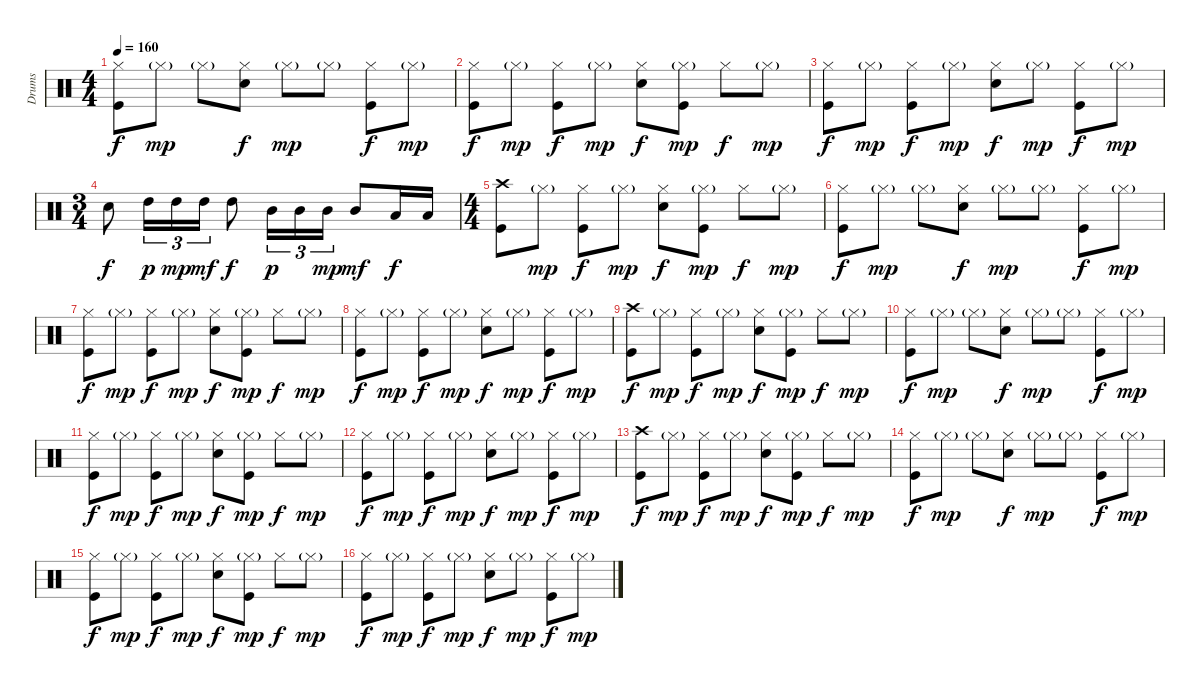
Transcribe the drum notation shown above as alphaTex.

\track ("Drums" "Drums") {instrument percussion}
\staff {score}
\articulation defaults
\ts (4 4)
\tempo 160
\clef neutral
\ks c
("Hi-Hat (closed)" "Kick (hit)").8{dy f} "Hi-Hat (closed)"{g}.8{dy mp} "Hi-Hat (closed)"{g}.8 ("Hi-Hat (closed)" "Electric Snare (hit)").8{dy f} "Hi-Hat (closed)"{g}.8{dy mp} "Hi-Hat (closed)"{g}.8 ("Hi-Hat (closed)" "Kick (hit)").8{dy f} "Hi-Hat (closed)"{g}.8{dy mp} |
("Hi-Hat (closed)" "Kick (hit)").8{dy f} "Hi-Hat (closed)"{g}.8{dy mp} ("Hi-Hat (closed)" "Kick (hit)").8{dy f} "Hi-Hat (closed)"{g}.8{dy mp} ("Hi-Hat (closed)" "Electric Snare (hit)").8{dy f} ("Hi-Hat (closed)"{g} "Kick (hit)").8{dy mp} "Hi-Hat (closed)".8{dy f} "Hi-Hat (closed)"{g}.8{dy mp} |
("Hi-Hat (closed)" "Kick (hit)").8{dy f} "Hi-Hat (closed)"{g}.8{dy mp} ("Hi-Hat (closed)" "Kick (hit)").8{dy f} "Hi-Hat (closed)"{g}.8{dy mp} ("Hi-Hat (closed)" "Electric Snare (hit)").8{dy f} "Hi-Hat (closed)"{g}.8{dy mp} ("Hi-Hat (closed)" "Kick (hit)").8{dy f} "Hi-Hat (closed)"{g}.8{dy mp} |
\ts (3 4)
"Electric Snare (hit)".8{dy f} "High Tom (hit)".16{tu (3 2) dy p} "High Tom (hit)".16{tu (3 2) dy mp} "High Tom (hit)".16{tu (3 2) dy mf} "High Tom (hit)".8{dy f} "Mid Tom (hit)".16{tu (3 2) dy p} "Mid Tom (hit)".16{tu (3 2)} "Mid Tom (hit)".16{tu (3 2) dy mp} "Mid Tom (hit)".8{dy mf} "Low Tom (hit)".16{dy f} "Low Tom (hit)".16 |
\ts (4 4)
("Crash high (hit)" "Kick (hit)").8 "Hi-Hat (closed)"{g}.8{dy mp} ("Hi-Hat (closed)" "Kick (hit)").8{dy f} "Hi-Hat (closed)"{g}.8{dy mp} ("Hi-Hat (closed)" "Electric Snare (hit)").8{dy f} ("Hi-Hat (closed)"{g} "Kick (hit)").8{dy mp} "Hi-Hat (closed)".8{dy f} "Hi-Hat (closed)"{g}.8{dy mp} |
("Hi-Hat (closed)" "Kick (hit)").8{dy f} "Hi-Hat (closed)"{g}.8{dy mp} "Hi-Hat (closed)"{g}.8 ("Hi-Hat (closed)" "Electric Snare (hit)").8{dy f} "Hi-Hat (closed)"{g}.8{dy mp} "Hi-Hat (closed)"{g}.8 ("Hi-Hat (closed)" "Kick (hit)").8{dy f} "Hi-Hat (closed)"{g}.8{dy mp} |
("Hi-Hat (closed)" "Kick (hit)").8{dy f} "Hi-Hat (closed)"{g}.8{dy mp} ("Hi-Hat (closed)" "Kick (hit)").8{dy f} "Hi-Hat (closed)"{g}.8{dy mp} ("Hi-Hat (closed)" "Electric Snare (hit)").8{dy f} ("Hi-Hat (closed)"{g} "Kick (hit)").8{dy mp} "Hi-Hat (closed)".8{dy f} "Hi-Hat (closed)"{g}.8{dy mp} |
("Hi-Hat (closed)" "Kick (hit)").8{dy f} "Hi-Hat (closed)"{g}.8{dy mp} ("Hi-Hat (closed)" "Kick (hit)").8{dy f} "Hi-Hat (closed)"{g}.8{dy mp} ("Hi-Hat (closed)" "Electric Snare (hit)").8{dy f} "Hi-Hat (closed)"{g}.8{dy mp} ("Hi-Hat (closed)" "Kick (hit)").8{dy f} "Hi-Hat (closed)"{g}.8{dy mp} |
("Crash high (hit)" "Kick (hit)").8{dy f} "Hi-Hat (closed)"{g}.8{dy mp} ("Hi-Hat (closed)" "Kick (hit)").8{dy f} "Hi-Hat (closed)"{g}.8{dy mp} ("Hi-Hat (closed)" "Electric Snare (hit)").8{dy f} ("Hi-Hat (closed)"{g} "Kick (hit)").8{dy mp} "Hi-Hat (closed)".8{dy f} "Hi-Hat (closed)"{g}.8{dy mp} |
("Hi-Hat (closed)" "Kick (hit)").8{dy f} "Hi-Hat (closed)"{g}.8{dy mp} "Hi-Hat (closed)"{g}.8 ("Hi-Hat (closed)" "Electric Snare (hit)").8{dy f} "Hi-Hat (closed)"{g}.8{dy mp} "Hi-Hat (closed)"{g}.8 ("Hi-Hat (closed)" "Kick (hit)").8{dy f} "Hi-Hat (closed)"{g}.8{dy mp} |
("Hi-Hat (closed)" "Kick (hit)").8{dy f} "Hi-Hat (closed)"{g}.8{dy mp} ("Hi-Hat (closed)" "Kick (hit)").8{dy f} "Hi-Hat (closed)"{g}.8{dy mp} ("Hi-Hat (closed)" "Electric Snare (hit)").8{dy f} ("Hi-Hat (closed)"{g} "Kick (hit)").8{dy mp} "Hi-Hat (closed)".8{dy f} "Hi-Hat (closed)"{g}.8{dy mp} |
("Hi-Hat (closed)" "Kick (hit)").8{dy f} "Hi-Hat (closed)"{g}.8{dy mp} ("Hi-Hat (closed)" "Kick (hit)").8{dy f} "Hi-Hat (closed)"{g}.8{dy mp} ("Hi-Hat (closed)" "Electric Snare (hit)").8{dy f} "Hi-Hat (closed)"{g}.8{dy mp} ("Hi-Hat (closed)" "Kick (hit)").8{dy f} "Hi-Hat (closed)"{g}.8{dy mp} |
("Crash high (hit)" "Kick (hit)").8{dy f} "Hi-Hat (closed)"{g}.8{dy mp} ("Hi-Hat (closed)" "Kick (hit)").8{dy f} "Hi-Hat (closed)"{g}.8{dy mp} ("Hi-Hat (closed)" "Electric Snare (hit)").8{dy f} ("Hi-Hat (closed)"{g} "Kick (hit)").8{dy mp} "Hi-Hat (closed)".8{dy f} "Hi-Hat (closed)"{g}.8{dy mp} |
("Hi-Hat (closed)" "Kick (hit)").8{dy f} "Hi-Hat (closed)"{g}.8{dy mp} "Hi-Hat (closed)"{g}.8 ("Hi-Hat (closed)" "Electric Snare (hit)").8{dy f} "Hi-Hat (closed)"{g}.8{dy mp} "Hi-Hat (closed)"{g}.8 ("Hi-Hat (closed)" "Kick (hit)").8{dy f} "Hi-Hat (closed)"{g}.8{dy mp} |
("Hi-Hat (closed)" "Kick (hit)").8{dy f} "Hi-Hat (closed)"{g}.8{dy mp} ("Hi-Hat (closed)" "Kick (hit)").8{dy f} "Hi-Hat (closed)"{g}.8{dy mp} ("Hi-Hat (closed)" "Electric Snare (hit)").8{dy f} ("Hi-Hat (closed)"{g} "Kick (hit)").8{dy mp} "Hi-Hat (closed)".8{dy f} "Hi-Hat (closed)"{g}.8{dy mp} |
("Hi-Hat (closed)" "Kick (hit)").8{dy f} "Hi-Hat (closed)"{g}.8{dy mp} ("Hi-Hat (closed)" "Kick (hit)").8{dy f} "Hi-Hat (closed)"{g}.8{dy mp} ("Hi-Hat (closed)" "Electric Snare (hit)").8{dy f} "Hi-Hat (closed)"{g}.8{dy mp} ("Hi-Hat (closed)" "Kick (hit)").8{dy f} "Hi-Hat (closed)"{g}.8{dy mp}
